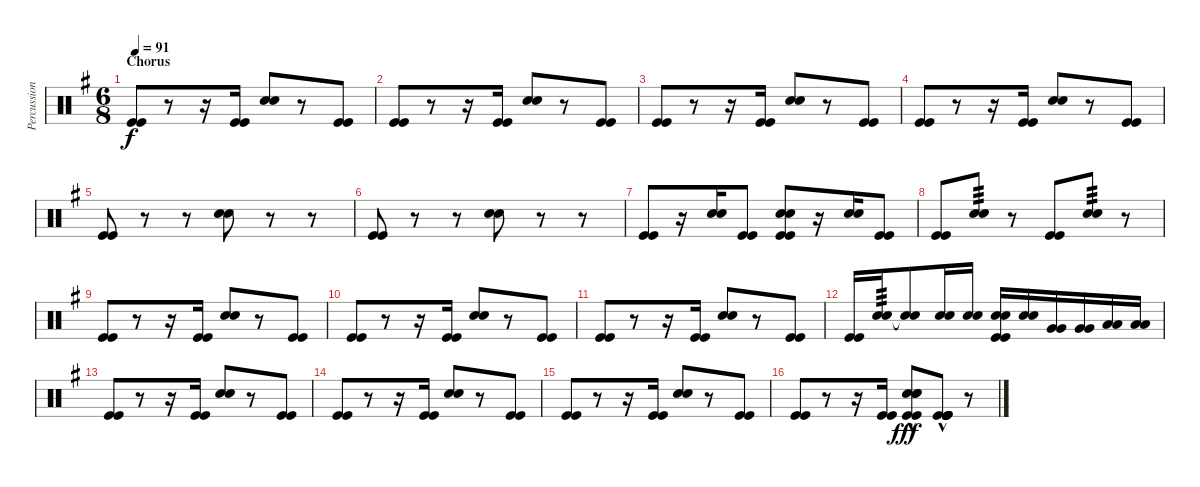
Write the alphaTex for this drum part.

\track ("Percussion (For Volume)" "Percussion") {instrument percussion}
\staff {score}
\articulation defaults
\ts (6 8)
\section ("" "Chorus")
\tempo 91
\clef neutral
\ks eminor
("Kick (hit)" "Kick (hit)").8{dy f} r.8 r.16 ("Kick (hit)" "Kick (hit)").16 ("Electric Snare (hit)" "Electric Snare (hit)").8 r.8 ("Kick (hit)" "Kick (hit)").8 |
("Kick (hit)" "Kick (hit)").8 r.8 r.16 ("Kick (hit)" "Kick (hit)").16 ("Electric Snare (hit)" "Electric Snare (hit)").8 r.8 ("Kick (hit)" "Kick (hit)").8 |
("Kick (hit)" "Kick (hit)").8 r.8 r.16 ("Kick (hit)" "Kick (hit)").16 ("Electric Snare (hit)" "Electric Snare (hit)").8 r.8 ("Kick (hit)" "Kick (hit)").8 |
("Kick (hit)" "Kick (hit)").8 r.8 r.16 ("Kick (hit)" "Kick (hit)").16 ("Electric Snare (hit)" "Electric Snare (hit)").8 r.8 ("Kick (hit)" "Kick (hit)").8 |
("Kick (hit)" "Kick (hit)").8 r.8 r.8 ("Electric Snare (hit)" "Electric Snare (hit)").8 r.8 r.8 |
("Kick (hit)" "Kick (hit)").8 r.8 r.8 ("Electric Snare (hit)" "Electric Snare (hit)").8 r.8 r.8 |
("Kick (hit)" "Kick (hit)").8 r.16 ("Electric Snare (hit)" "Electric Snare (hit)").16 ("Kick (hit)" "Kick (hit)").8 ("Electric Snare (hit)" "Electric Snare (hit)" "Kick (hit)" "Kick (hit)").8 r.16 ("Electric Snare (hit)" "Electric Snare (hit)").16 ("Kick (hit)" "Kick (hit)").8 |
("Kick (hit)" "Kick (hit)").8 ("Electric Snare (hit)" "Electric Snare (hit)").8{tp 3} r.8 ("Kick (hit)" "Kick (hit)").8 ("Electric Snare (hit)" "Electric Snare (hit)").8{tp 3} r.8 |
("Kick (hit)" "Kick (hit)").8 r.8 r.16 ("Kick (hit)" "Kick (hit)").16 ("Electric Snare (hit)" "Electric Snare (hit)").8 r.8 ("Kick (hit)" "Kick (hit)").8 |
("Kick (hit)" "Kick (hit)").8 r.8 r.16 ("Kick (hit)" "Kick (hit)").16 ("Electric Snare (hit)" "Electric Snare (hit)").8 r.8 ("Kick (hit)" "Kick (hit)").8 |
("Kick (hit)" "Kick (hit)").8 r.8 r.16 ("Kick (hit)" "Kick (hit)").16 ("Electric Snare (hit)" "Electric Snare (hit)").8 r.8 ("Kick (hit)" "Kick (hit)").8 |
("Kick (hit)" "Kick (hit)").16 ("Electric Snare (hit)" "Electric Snare (hit)").16{tp 3} ("Snare (hit) 2"{t} "Snare (hit) 2"{t}).8 ("Electric Snare (hit)" "Electric Snare (hit)").16 ("Electric Snare (hit)" "Electric Snare (hit)").16 ("Electric Snare (hit)" "Electric Snare (hit)" "Kick (hit)" "Kick (hit)").16 ("Electric Snare (hit)" "Electric Snare (hit)").16 ("Very Low Tom (hit)" "Very Low Tom (hit)").16 ("Very Low Tom (hit)" "Very Low Tom (hit)").16 ("Low Floor Tom (hit)" "Low Floor Tom (hit)").16 ("Low Floor Tom (hit)" "Low Floor Tom (hit)").16 |
("Kick (hit)" "Kick (hit)").8 r.8 r.16 ("Kick (hit)" "Kick (hit)").16 ("Electric Snare (hit)" "Electric Snare (hit)").8 r.8 ("Kick (hit)" "Kick (hit)").8 |
("Kick (hit)" "Kick (hit)").8 r.8 r.16 ("Kick (hit)" "Kick (hit)").16 ("Electric Snare (hit)" "Electric Snare (hit)").8 r.8 ("Kick (hit)" "Kick (hit)").8 |
("Kick (hit)" "Kick (hit)").8 r.8 r.16 ("Kick (hit)" "Kick (hit)").16 ("Electric Snare (hit)" "Electric Snare (hit)").8 r.8 ("Kick (hit)" "Kick (hit)").8 |
("Kick (hit)" "Kick (hit)").8 r.8 r.16 ("Kick (hit)" "Kick (hit)").16 ("Electric Snare (hit)" "Electric Snare (hit)"{hac} "Electric Snare (hit)"{hac} "Kick (hit)"{hac} "Kick (hit)"{hac}).8{dy fff} ("Kick (hit)"{hac} "Kick (hit)"{hac} "Kick (hit)"{hac} "Kick (hit)"{hac} "Kick (hit)"{hac} "Kick (hit)"{hac}).8 r.8
